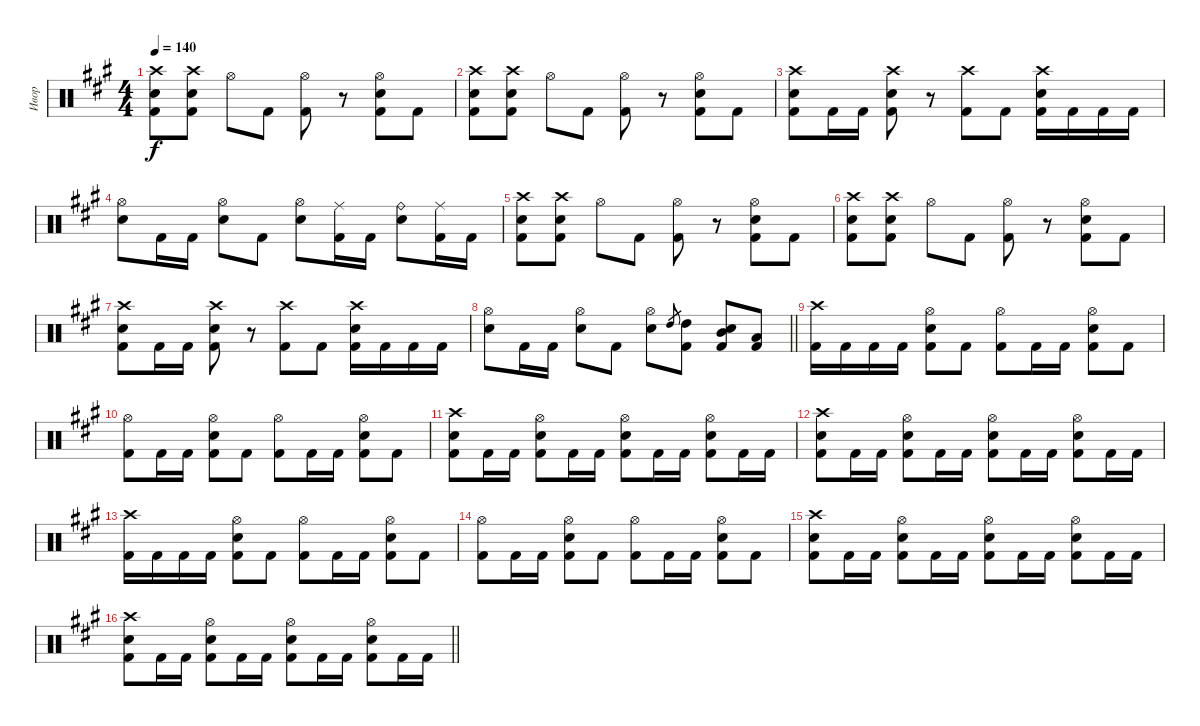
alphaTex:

\track ("Ивор" "Ивор") {instrument percussion}
\staff {score}
\articulation defaults
\ts (4 4)
\tempo 140
\clef neutral
\ks f#minor
("Crash high (hit)" "Electric Snare (hit)" "Kick (hit) 2").8{dy f} ("Crash high (hit)" "Electric Snare (hit)" "Kick (hit) 2").8 "Hi-Hat (open)".8 "Kick (hit) 2".8 ("Hi-Hat (open)" "Kick (hit) 2").8 r.8 ("Hi-Hat (open)" "Electric Snare (hit)" "Kick (hit) 2").8 "Kick (hit) 2".8 |
("Crash high (hit)" "Electric Snare (hit)" "Kick (hit) 2").8 ("Crash high (hit)" "Electric Snare (hit)" "Kick (hit) 2").8 "Hi-Hat (open)".8 "Kick (hit) 2".8 ("Hi-Hat (open)" "Kick (hit) 2").8 r.8 ("Hi-Hat (open)" "Electric Snare (hit)" "Kick (hit) 2").8 "Kick (hit) 2".8 |
("Crash high (hit)" "Electric Snare (hit)" "Kick (hit) 2").8 "Kick (hit) 2".16 "Kick (hit) 2".16 ("Crash high (hit)" "Electric Snare (hit)" "Kick (hit) 2").8 r.8 ("Crash high (hit)" "Kick (hit) 2").8 "Kick (hit) 2".8 ("Crash high (hit)" "Electric Snare (hit)" "Kick (hit) 2").16 "Kick (hit) 2".16 "Kick (hit) 2".16 "Kick (hit) 2".16 |
("Hi-Hat (open)" "Electric Snare (hit)").8 "Kick (hit) 2".16 "Kick (hit) 2".16 ("Hi-Hat (open)" "Electric Snare (hit)").8 "Kick (hit) 2".8 ("Hi-Hat (open)" "Electric Snare (hit)").8 ("Ride (middle)" "Kick (hit) 2").16 "Kick (hit) 2".16 ("Ride (bell)" "Electric Snare (hit)").8 ("Ride (middle)" "Kick (hit) 2").16 "Kick (hit) 2".16 |
("Crash high (hit)" "Electric Snare (hit)" "Kick (hit) 2").8 ("Crash high (hit)" "Electric Snare (hit)" "Kick (hit) 2").8 "Hi-Hat (open)".8 "Kick (hit) 2".8 ("Hi-Hat (open)" "Kick (hit) 2").8 r.8 ("Hi-Hat (open)" "Electric Snare (hit)" "Kick (hit) 2").8 "Kick (hit) 2".8 |
("Crash high (hit)" "Electric Snare (hit)" "Kick (hit) 2").8 ("Crash high (hit)" "Electric Snare (hit)" "Kick (hit) 2").8 "Hi-Hat (open)".8 "Kick (hit) 2".8 ("Hi-Hat (open)" "Kick (hit) 2").8 r.8 ("Hi-Hat (open)" "Electric Snare (hit)" "Kick (hit) 2").8 "Kick (hit) 2".8 |
("Crash high (hit)" "Electric Snare (hit)" "Kick (hit) 2").8 "Kick (hit) 2".16 "Kick (hit) 2".16 ("Crash high (hit)" "Electric Snare (hit)" "Kick (hit) 2").8 r.8 ("Crash high (hit)" "Kick (hit) 2").8 "Kick (hit) 2".8 ("Crash high (hit)" "Electric Snare (hit)" "Kick (hit) 2").16 "Kick (hit) 2".16 "Kick (hit) 2".16 "Kick (hit) 2".16 |
\barLineRight lightlight
("Hi-Hat (open)" "Electric Snare (hit)").8 "Kick (hit) 2".16 "Kick (hit) 2".16 ("Hi-Hat (open)" "Electric Snare (hit)").8 "Kick (hit) 2".8 ("Hi-Hat (open)" "Electric Snare (hit)").8 "High Tom (hit)".8{gr} ("High Tom (hit)" "Kick (hit) 2").8 ("Mid Tom (hit)" "Electric Snare (hit)" "Kick (hit) 2").8 ("Low Tom (hit)" "Kick (hit) 2").8 |
\section ("" "")
("Crash high (hit)" "Kick (hit) 2").16 "Kick (hit) 2".16 "Kick (hit) 2".16 "Kick (hit) 2".16 ("Hi-Hat (open)" "Electric Snare (hit)" "Kick (hit) 2").8 "Kick (hit) 2".8 ("Hi-Hat (open)" "Kick (hit) 2").8 "Kick (hit) 2".16 "Kick (hit) 2".16 ("Hi-Hat (open)" "Electric Snare (hit)" "Kick (hit) 2").8 "Kick (hit) 2".8 |
("Hi-Hat (open)" "Kick (hit) 2").8 "Kick (hit) 2".16 "Kick (hit) 2".16 ("Hi-Hat (open)" "Electric Snare (hit)" "Kick (hit) 2").8 "Kick (hit) 2".8 ("Hi-Hat (open)" "Kick (hit) 2").8 "Kick (hit) 2".16 "Kick (hit) 2".16 ("Hi-Hat (open)" "Electric Snare (hit)" "Kick (hit) 2").8 "Kick (hit) 2".8 |
("Crash high (hit)" "Electric Snare (hit)" "Kick (hit) 2").8 "Kick (hit) 2".16 "Kick (hit) 2".16 ("Hi-Hat (open)" "Electric Snare (hit)" "Kick (hit) 2").8 "Kick (hit) 2".16 "Kick (hit) 2".16 ("Hi-Hat (open)" "Electric Snare (hit)" "Kick (hit) 2").8 "Kick (hit) 2".16 "Kick (hit) 2".16 ("Hi-Hat (open)" "Electric Snare (hit)" "Kick (hit) 2").8 "Kick (hit) 2".16 "Kick (hit) 2".16 |
("Crash high (hit)" "Electric Snare (hit)" "Kick (hit) 2").8 "Kick (hit) 2".16 "Kick (hit) 2".16 ("Hi-Hat (open)" "Electric Snare (hit)" "Kick (hit) 2").8 "Kick (hit) 2".16 "Kick (hit) 2".16 ("Hi-Hat (open)" "Electric Snare (hit)" "Kick (hit) 2").8 "Kick (hit) 2".16 "Kick (hit) 2".16 ("Hi-Hat (open)" "Electric Snare (hit)" "Kick (hit) 2").8 "Kick (hit) 2".16 "Kick (hit) 2".16 |
("Crash high (hit)" "Kick (hit) 2").16 "Kick (hit) 2".16 "Kick (hit) 2".16 "Kick (hit) 2".16 ("Hi-Hat (open)" "Electric Snare (hit)" "Kick (hit) 2").8 "Kick (hit) 2".8 ("Hi-Hat (open)" "Kick (hit) 2").8 "Kick (hit) 2".16 "Kick (hit) 2".16 ("Hi-Hat (open)" "Electric Snare (hit)" "Kick (hit) 2").8 "Kick (hit) 2".8 |
("Hi-Hat (open)" "Kick (hit) 2").8 "Kick (hit) 2".16 "Kick (hit) 2".16 ("Hi-Hat (open)" "Electric Snare (hit)" "Kick (hit) 2").8 "Kick (hit) 2".8 ("Hi-Hat (open)" "Kick (hit) 2").8 "Kick (hit) 2".16 "Kick (hit) 2".16 ("Hi-Hat (open)" "Electric Snare (hit)" "Kick (hit) 2").8 "Kick (hit) 2".8 |
("Crash high (hit)" "Electric Snare (hit)" "Kick (hit) 2").8 "Kick (hit) 2".16 "Kick (hit) 2".16 ("Hi-Hat (open)" "Electric Snare (hit)" "Kick (hit) 2").8 "Kick (hit) 2".16 "Kick (hit) 2".16 ("Hi-Hat (open)" "Electric Snare (hit)" "Kick (hit) 2").8 "Kick (hit) 2".16 "Kick (hit) 2".16 ("Hi-Hat (open)" "Electric Snare (hit)" "Kick (hit) 2").8 "Kick (hit) 2".16 "Kick (hit) 2".16 |
\barLineRight lightlight
("Crash high (hit)" "Electric Snare (hit)" "Kick (hit) 2").8 "Kick (hit) 2".16 "Kick (hit) 2".16 ("Hi-Hat (open)" "Electric Snare (hit)" "Kick (hit) 2").8 "Kick (hit) 2".16 "Kick (hit) 2".16 ("Hi-Hat (open)" "Electric Snare (hit)" "Kick (hit) 2").8 "Kick (hit) 2".16 "Kick (hit) 2".16 ("Hi-Hat (open)" "Electric Snare (hit)" "Kick (hit) 2").8 "Kick (hit) 2".16 "Kick (hit) 2".16
